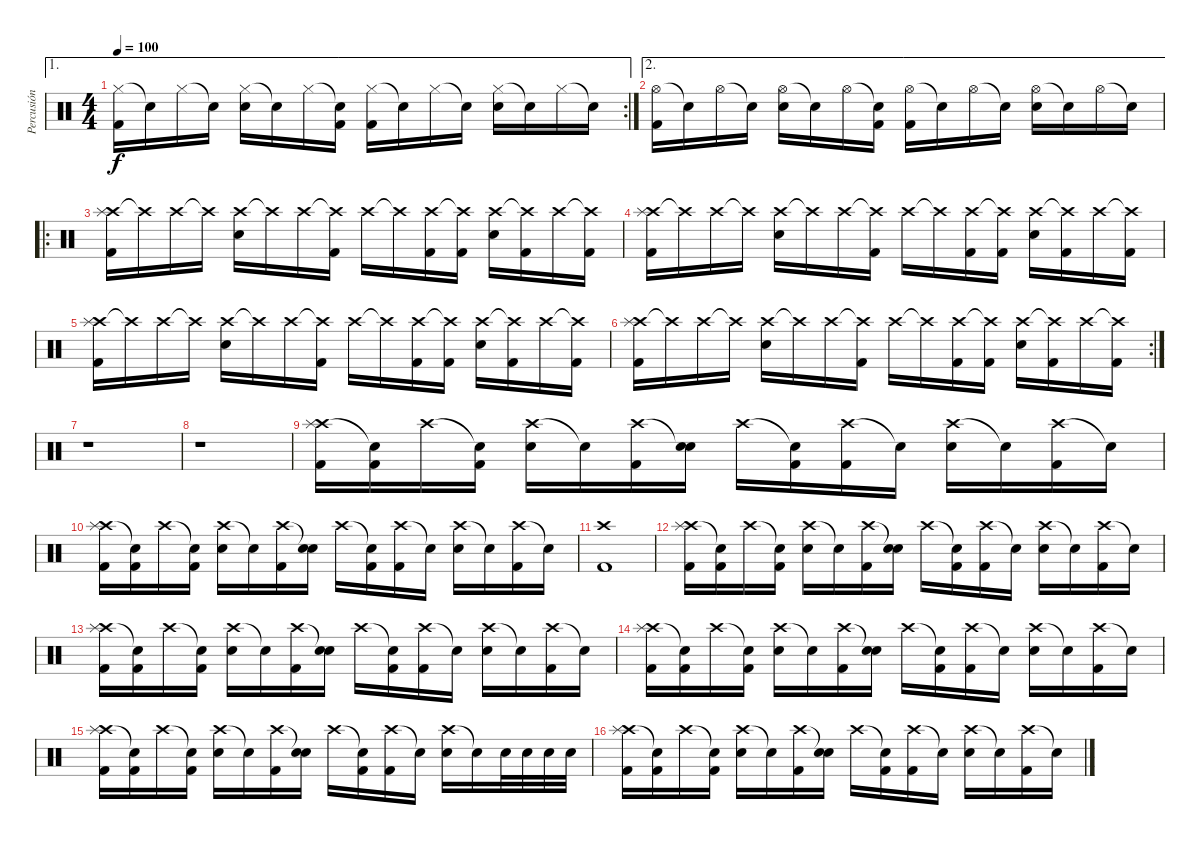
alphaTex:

\track ("Percusión" "Percusión") {instrument percussion}
\staff {score}
\articulation defaults
\ae 1
\rc 2
\ts (4 4)
\tempo 100
\clef neutral
\ks c
("Hi-Hat (closed)" "Kick (hit) 2").16{dy f} "Snare (hit)"{t}.16 "Hi-Hat (closed)".16 "Snare (hit)"{t}.16 ("Hi-Hat (closed)" "Electric Snare (hit)").16 "Snare (hit)"{t}.16 "Hi-Hat (closed)".16 ("Snare (hit)"{t} "Kick (hit) 2").16 ("Hi-Hat (closed)" "Kick (hit) 2").16 "Snare (hit)"{t}.16 "Hi-Hat (closed)".16 "Snare (hit)"{t}.16 ("Hi-Hat (closed)" "Electric Snare (hit)").16 "Snare (hit)"{t}.16 "Hi-Hat (closed)".16 "Snare (hit)"{t}.16 |
\ae 2
("Hi-Hat (open)" "Kick (hit) 2").16 "Snare (hit)"{t}.16 "Hi-Hat (open)".16 "Snare (hit)"{t}.16 ("Hi-Hat (open)" "Electric Snare (hit)").16 "Snare (hit)"{t}.16 "Hi-Hat (open)".16 ("Snare (hit)"{t} "Kick (hit) 2").16 ("Hi-Hat (open)" "Kick (hit) 2").16 "Snare (hit)"{t}.16 "Hi-Hat (open)".16 "Snare (hit)"{t}.16 ("Hi-Hat (open)" "Electric Snare (hit)").16 "Snare (hit)"{t}.16 "Hi-Hat (open)".16 "Snare (hit)"{t}.16 |
\ro
("Crash high (hit)" "Splash (hit)" "Kick (hit) 2").16 "Crash high (hit)"{t}.16 "Crash high (hit)".16 "Crash high (hit)"{t}.16 ("Crash high (hit)" "Electric Snare (hit)").16 "Crash high (hit)"{t}.16 "Crash high (hit)".16 ("Crash high (hit)"{t} "Kick (hit) 2").16 "Crash high (hit)".16 "Crash high (hit)"{t}.16 ("Crash high (hit)" "Kick (hit) 2").16 ("Crash high (hit)"{t} "Kick (hit) 2").16 ("Crash high (hit)" "Electric Snare (hit)").16 ("Crash high (hit)"{t} "Kick (hit) 2").16 "Crash high (hit)".16 ("Crash high (hit)"{t} "Kick (hit) 2").16 |
("Crash high (hit)" "Splash (hit)" "Kick (hit) 2").16 "Crash high (hit)"{t}.16 "Crash high (hit)".16 "Crash high (hit)"{t}.16 ("Crash high (hit)" "Electric Snare (hit)").16 "Crash high (hit)"{t}.16 "Crash high (hit)".16 ("Crash high (hit)"{t} "Kick (hit) 2").16 "Crash high (hit)".16 "Crash high (hit)"{t}.16 ("Crash high (hit)" "Kick (hit) 2").16 ("Crash high (hit)"{t} "Kick (hit) 2").16 ("Crash high (hit)" "Electric Snare (hit)").16 ("Crash high (hit)"{t} "Kick (hit) 2").16 "Crash high (hit)".16 ("Crash high (hit)"{t} "Kick (hit) 2").16 |
("Crash high (hit)" "Splash (hit)" "Kick (hit) 2").16 "Crash high (hit)"{t}.16 "Crash high (hit)".16 "Crash high (hit)"{t}.16 ("Crash high (hit)" "Electric Snare (hit)").16 "Crash high (hit)"{t}.16 "Crash high (hit)".16 ("Crash high (hit)"{t} "Kick (hit) 2").16 "Crash high (hit)".16 "Crash high (hit)"{t}.16 ("Crash high (hit)" "Kick (hit) 2").16 ("Crash high (hit)"{t} "Kick (hit) 2").16 ("Crash high (hit)" "Electric Snare (hit)").16 ("Crash high (hit)"{t} "Kick (hit) 2").16 "Crash high (hit)".16 ("Crash high (hit)"{t} "Kick (hit) 2").16 |
\rc 2
("Crash high (hit)" "Splash (hit)" "Kick (hit) 2").16 "Crash high (hit)"{t}.16 "Crash high (hit)".16 "Crash high (hit)"{t}.16 ("Crash high (hit)" "Electric Snare (hit)").16 "Crash high (hit)"{t}.16 "Crash high (hit)".16 ("Crash high (hit)"{t} "Kick (hit) 2").16 "Crash high (hit)".16 "Crash high (hit)"{t}.16 ("Crash high (hit)" "Kick (hit) 2").16 ("Crash high (hit)"{t} "Kick (hit) 2").16 ("Crash high (hit)" "Electric Snare (hit)").16 ("Crash high (hit)"{t} "Kick (hit) 2").16 "Crash high (hit)".16 ("Crash high (hit)"{t} "Kick (hit) 2").16 |
r.1 |
r.1 |
("Crash high (hit)" "Splash (hit)" "Kick (hit) 2").16 ("Snare (hit)"{t} "Kick (hit) 2").16 "Crash high (hit)".16 ("Snare (hit)"{t} "Kick (hit) 2").16 ("Crash high (hit)" "Electric Snare (hit)").16 "Snare (hit)"{t}.16 ("Crash high (hit)" "Kick (hit) 2").16 ("Snare (hit)"{t} "Electric Snare (hit)").16 "Crash high (hit)".16 ("Snare (hit)"{t} "Kick (hit) 2").16 ("Crash high (hit)" "Kick (hit) 2").16 "Snare (hit)"{t}.16 ("Crash high (hit)" "Electric Snare (hit)").16 "Snare (hit)"{t}.16 ("Crash high (hit)" "Kick (hit) 2").16 "Snare (hit)"{t}.16 |
("Crash high (hit)" "Splash (hit)" "Kick (hit) 2").16 ("Snare (hit)"{t} "Kick (hit) 2").16 "Crash high (hit)".16 ("Snare (hit)"{t} "Kick (hit) 2").16 ("Crash high (hit)" "Electric Snare (hit)").16 "Snare (hit)"{t}.16 ("Crash high (hit)" "Kick (hit) 2").16 ("Snare (hit)"{t} "Electric Snare (hit)").16 "Crash high (hit)".16 ("Snare (hit)"{t} "Kick (hit) 2").16 ("Crash high (hit)" "Kick (hit) 2").16 "Snare (hit)"{t}.16 ("Crash high (hit)" "Electric Snare (hit)").16 "Snare (hit)"{t}.16 ("Crash high (hit)" "Kick (hit) 2").16 "Snare (hit)"{t}.16 |
("Crash high (hit)" "Kick (hit) 2").1 |
("Crash high (hit)" "Splash (hit)" "Kick (hit) 2").16 ("Snare (hit)"{t} "Kick (hit) 2").16 "Crash high (hit)".16 ("Snare (hit)"{t} "Kick (hit) 2").16 ("Crash high (hit)" "Electric Snare (hit)").16 "Snare (hit)"{t}.16 ("Crash high (hit)" "Kick (hit) 2").16 ("Snare (hit)"{t} "Electric Snare (hit)").16 "Crash high (hit)".16 ("Snare (hit)"{t} "Kick (hit) 2").16 ("Crash high (hit)" "Kick (hit) 2").16 "Snare (hit)"{t}.16 ("Crash high (hit)" "Electric Snare (hit)").16 "Snare (hit)"{t}.16 ("Crash high (hit)" "Kick (hit) 2").16 "Snare (hit)"{t}.16 |
("Crash high (hit)" "Splash (hit)" "Kick (hit) 2").16 ("Snare (hit)"{t} "Kick (hit) 2").16 "Crash high (hit)".16 ("Snare (hit)"{t} "Kick (hit) 2").16 ("Crash high (hit)" "Electric Snare (hit)").16 "Snare (hit)"{t}.16 ("Crash high (hit)" "Kick (hit) 2").16 ("Snare (hit)"{t} "Electric Snare (hit)").16 "Crash high (hit)".16 ("Snare (hit)"{t} "Kick (hit) 2").16 ("Crash high (hit)" "Kick (hit) 2").16 "Snare (hit)"{t}.16 ("Crash high (hit)" "Electric Snare (hit)").16 "Snare (hit)"{t}.16 ("Crash high (hit)" "Kick (hit) 2").16 "Snare (hit)"{t}.16 |
("Crash high (hit)" "Splash (hit)" "Kick (hit) 2").16 ("Snare (hit)"{t} "Kick (hit) 2").16 "Crash high (hit)".16 ("Snare (hit)"{t} "Kick (hit) 2").16 ("Crash high (hit)" "Electric Snare (hit)").16 "Snare (hit)"{t}.16 ("Crash high (hit)" "Kick (hit) 2").16 ("Snare (hit)"{t} "Electric Snare (hit)").16 "Crash high (hit)".16 ("Snare (hit)"{t} "Kick (hit) 2").16 ("Crash high (hit)" "Kick (hit) 2").16 "Snare (hit)"{t}.16 ("Crash high (hit)" "Electric Snare (hit)").16 "Snare (hit)"{t}.16 ("Crash high (hit)" "Kick (hit) 2").16 "Snare (hit)"{t}.16 |
("Crash high (hit)" "Splash (hit)" "Kick (hit) 2").16 ("Snare (hit)"{t} "Kick (hit) 2").16 "Crash high (hit)".16 ("Snare (hit)"{t} "Kick (hit) 2").16 ("Crash high (hit)" "Electric Snare (hit)").16 "Snare (hit)"{t}.16 ("Crash high (hit)" "Kick (hit) 2").16 ("Snare (hit)"{t} "Electric Snare (hit)").16 "Crash high (hit)".16 ("Snare (hit)"{t} "Kick (hit) 2").16 ("Crash high (hit)" "Kick (hit) 2").16 "Snare (hit)"{t}.16 ("Crash high (hit)" "Electric Snare (hit)").16 "Snare (hit)"{t}.16 "Electric Snare (hit)".32 "Electric Snare (hit)".32 "Electric Snare (hit)".32 "Electric Snare (hit)".32 |
("Crash high (hit)" "Splash (hit)" "Kick (hit) 2").16 ("Snare (hit)"{t} "Kick (hit) 2").16 "Crash high (hit)".16 ("Snare (hit)"{t} "Kick (hit) 2").16 ("Crash high (hit)" "Electric Snare (hit)").16 "Snare (hit)"{t}.16 ("Crash high (hit)" "Kick (hit) 2").16 ("Snare (hit)"{t} "Electric Snare (hit)").16 "Crash high (hit)".16 ("Snare (hit)"{t} "Kick (hit) 2").16 ("Crash high (hit)" "Kick (hit) 2").16 "Snare (hit)"{t}.16 ("Crash high (hit)" "Electric Snare (hit)").16 "Snare (hit)"{t}.16 ("Crash high (hit)" "Kick (hit) 2").16 "Snare (hit)"{t}.16
